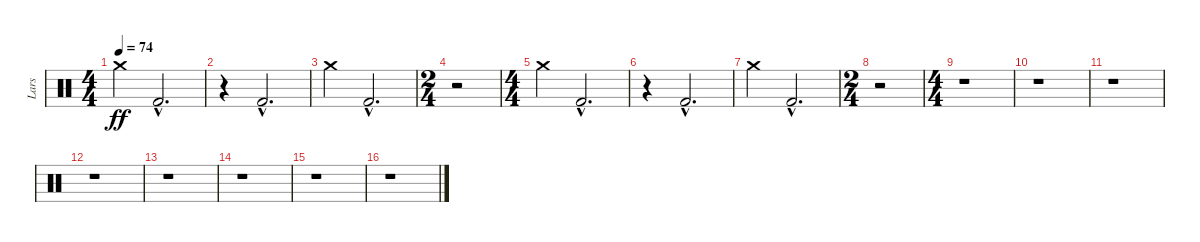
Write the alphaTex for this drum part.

\track ("Lars" "Lars") {instrument percussion}
\staff {score}
\articulation defaults
\ts (4 4)
\tempo 74
\clef neutral
\ks c "Crash medium (hit)".4{dy ff} "Kick (hit) 2"{hac}.2{d}
|
r.4 "Kick (hit) 2"{hac}.2{d} |
"Crash medium (hit)".4 "Kick (hit) 2"{hac}.2{d} |
\ts (2 4)
r.2 |
\ts (4 4)
"Crash medium (hit)".4 "Kick (hit) 2"{hac}.2{d} |
r.4 "Kick (hit) 2"{hac}.2{d} |
"Crash medium (hit)".4 "Kick (hit) 2"{hac}.2{d} |
\ts (2 4)
r.2 |
\ts (4 4)
r.1 |
r.1 |
r.1 |
r.1 |
r.1 |
r.1 |
r.1 |
r.1
